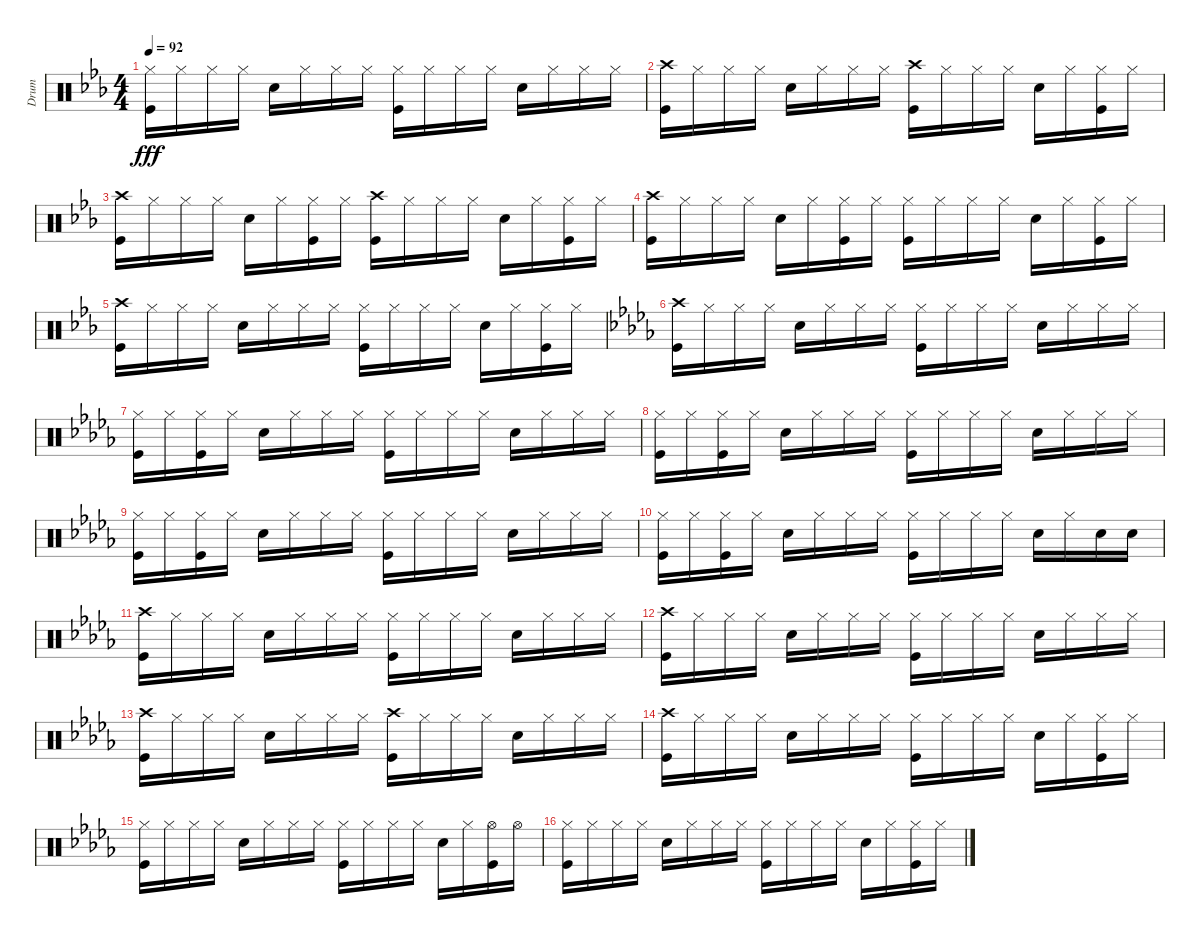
\track ("Drum" "Drum") {instrument percussion}
\staff {score}
\articulation defaults
\ts (4 4)
\tempo 92
\clef neutral
\ks eb
("Hi-Hat (closed)" "Kick (hit)").16{dy fff} "Hi-Hat (closed)".16 "Hi-Hat (closed)".16 "Hi-Hat (closed)".16 "Snare (hit) 2".16 "Hi-Hat (closed)".16 "Hi-Hat (closed)".16 "Hi-Hat (closed)".16 ("Hi-Hat (closed)" "Kick (hit)").16 "Hi-Hat (closed)".16 "Hi-Hat (closed)".16 "Hi-Hat (closed)".16 "Snare (hit) 2".16 "Hi-Hat (closed)".16 "Hi-Hat (closed)".16 "Hi-Hat (closed)".16 |
("Crash high (hit)" "Kick (hit)").16 "Hi-Hat (closed)".16 "Hi-Hat (closed)".16 "Hi-Hat (closed)".16 "Snare (hit) 2".16 "Hi-Hat (closed)".16 "Hi-Hat (closed)".16 "Hi-Hat (closed)".16 ("Crash high (hit)" "Kick (hit)").16 "Hi-Hat (closed)".16 "Hi-Hat (closed)".16 "Hi-Hat (closed)".16 "Snare (hit) 2".16 "Hi-Hat (closed)".16 ("Hi-Hat (closed)" "Kick (hit)").16 "Hi-Hat (closed)".16 |
("Crash high (hit)" "Kick (hit)").16 "Hi-Hat (closed)".16 "Hi-Hat (closed)".16 "Hi-Hat (closed)".16 "Snare (hit) 2".16 "Hi-Hat (closed)".16 ("Hi-Hat (closed)" "Kick (hit)").16 "Hi-Hat (closed)".16 ("Crash high (hit)" "Kick (hit)").16 "Hi-Hat (closed)".16 "Hi-Hat (closed)".16 "Hi-Hat (closed)".16 "Snare (hit) 2".16 "Hi-Hat (closed)".16 ("Hi-Hat (closed)" "Kick (hit)").16 "Hi-Hat (closed)".16 |
("Crash high (hit)" "Kick (hit)").16 "Hi-Hat (closed)".16 "Hi-Hat (closed)".16 "Hi-Hat (closed)".16 "Snare (hit) 2".16 "Hi-Hat (closed)".16 ("Hi-Hat (closed)" "Kick (hit)").16 "Hi-Hat (closed)".16 ("Hi-Hat (closed)" "Kick (hit)").16 "Hi-Hat (closed)".16 "Hi-Hat (closed)".16 "Hi-Hat (closed)".16 "Snare (hit) 2".16 "Hi-Hat (closed)".16 ("Hi-Hat (closed)" "Kick (hit)").16 "Hi-Hat (closed)".16 |
("Crash high (hit)" "Kick (hit)").16 "Hi-Hat (closed)".16 "Hi-Hat (closed)".16 "Hi-Hat (closed)".16 "Snare (hit) 2".16 "Hi-Hat (closed)".16 "Hi-Hat (closed)".16 "Hi-Hat (closed)".16 ("Hi-Hat (closed)" "Kick (hit)").16 "Hi-Hat (closed)".16 "Hi-Hat (closed)".16 "Hi-Hat (closed)".16 "Snare (hit) 2".16 "Hi-Hat (closed)".16 ("Hi-Hat (closed)" "Kick (hit)").16 "Hi-Hat (closed)".16 |
\ks db
("Crash high (hit)" "Kick (hit)").16 "Hi-Hat (closed)".16 "Hi-Hat (closed)".16 "Hi-Hat (closed)".16 "Snare (hit) 2".16 "Hi-Hat (closed)".16 "Hi-Hat (closed)".16 "Hi-Hat (closed)".16 ("Hi-Hat (closed)" "Kick (hit)").16 "Hi-Hat (closed)".16 "Hi-Hat (closed)".16 "Hi-Hat (closed)".16 "Snare (hit) 2".16 "Hi-Hat (closed)".16 "Hi-Hat (closed)".16 "Hi-Hat (closed)".16 |
("Hi-Hat (closed)" "Kick (hit)").16 "Hi-Hat (closed)".16 ("Hi-Hat (closed)" "Kick (hit)").16 "Hi-Hat (closed)".16 "Snare (hit) 2".16 "Hi-Hat (closed)".16 "Hi-Hat (closed)".16 "Hi-Hat (closed)".16 ("Hi-Hat (closed)" "Kick (hit)").16 "Hi-Hat (closed)".16 "Hi-Hat (closed)".16 "Hi-Hat (closed)".16 "Snare (hit) 2".16 "Hi-Hat (closed)".16 "Hi-Hat (closed)".16 "Hi-Hat (closed)".16 |
("Hi-Hat (closed)" "Kick (hit)").16 "Hi-Hat (closed)".16 ("Hi-Hat (closed)" "Kick (hit)").16 "Hi-Hat (closed)".16 "Snare (hit) 2".16 "Hi-Hat (closed)".16 "Hi-Hat (closed)".16 "Hi-Hat (closed)".16 ("Hi-Hat (closed)" "Kick (hit)").16 "Hi-Hat (closed)".16 "Hi-Hat (closed)".16 "Hi-Hat (closed)".16 "Snare (hit) 2".16 "Hi-Hat (closed)".16 "Hi-Hat (closed)".16 "Hi-Hat (closed)".16 |
("Hi-Hat (closed)" "Kick (hit)").16 "Hi-Hat (closed)".16 ("Hi-Hat (closed)" "Kick (hit)").16 "Hi-Hat (closed)".16 "Snare (hit) 2".16 "Hi-Hat (closed)".16 "Hi-Hat (closed)".16 "Hi-Hat (closed)".16 ("Hi-Hat (closed)" "Kick (hit)").16 "Hi-Hat (closed)".16 "Hi-Hat (closed)".16 "Hi-Hat (closed)".16 "Snare (hit) 2".16 "Hi-Hat (closed)".16 "Hi-Hat (closed)".16 "Hi-Hat (closed)".16 |
("Hi-Hat (closed)" "Kick (hit)").16 "Hi-Hat (closed)".16 ("Hi-Hat (closed)" "Kick (hit)").16 "Hi-Hat (closed)".16 "Snare (hit) 2".16 "Hi-Hat (closed)".16 "Hi-Hat (closed)".16 "Hi-Hat (closed)".16 ("Hi-Hat (closed)" "Kick (hit)").16 "Hi-Hat (closed)".16 "Hi-Hat (closed)".16 "Hi-Hat (closed)".16 "Snare (hit) 2".16 "Hi-Hat (closed)".16 "Snare (hit) 2".16 "Snare (hit) 2".16 |
("Crash high (hit)" "Kick (hit)").16 "Hi-Hat (closed)".16 "Hi-Hat (closed)".16 "Hi-Hat (closed)".16 "Snare (hit) 2".16 "Hi-Hat (closed)".16 "Hi-Hat (closed)".16 "Hi-Hat (closed)".16 ("Hi-Hat (closed)" "Kick (hit)").16 "Hi-Hat (closed)".16 "Hi-Hat (closed)".16 "Hi-Hat (closed)".16 "Snare (hit) 2".16 "Hi-Hat (closed)".16 "Hi-Hat (closed)".16 "Hi-Hat (closed)".16 |
("Crash high (hit)" "Kick (hit)").16 "Hi-Hat (closed)".16 "Hi-Hat (closed)".16 "Hi-Hat (closed)".16 "Snare (hit) 2".16 "Hi-Hat (closed)".16 "Hi-Hat (closed)".16 "Hi-Hat (closed)".16 ("Hi-Hat (closed)" "Kick (hit)").16 "Hi-Hat (closed)".16 "Hi-Hat (closed)".16 "Hi-Hat (closed)".16 "Snare (hit) 2".16 "Hi-Hat (closed)".16 "Hi-Hat (closed)".16 "Hi-Hat (closed)".16 |
("Crash high (hit)" "Kick (hit)").16 "Hi-Hat (closed)".16 "Hi-Hat (closed)".16 "Hi-Hat (closed)".16 "Snare (hit) 2".16 "Hi-Hat (closed)".16 "Hi-Hat (closed)".16 "Hi-Hat (closed)".16 ("Crash high (hit)" "Kick (hit)").16 "Hi-Hat (closed)".16 "Hi-Hat (closed)".16 "Hi-Hat (closed)".16 "Snare (hit) 2".16 "Hi-Hat (closed)".16 "Hi-Hat (closed)".16 "Hi-Hat (closed)".16 |
("Crash high (hit)" "Kick (hit)").16 "Hi-Hat (closed)".16 "Hi-Hat (closed)".16 "Hi-Hat (closed)".16 "Snare (hit) 2".16 "Hi-Hat (closed)".16 "Hi-Hat (closed)".16 "Hi-Hat (closed)".16 ("Hi-Hat (closed)" "Kick (hit)").16 "Hi-Hat (closed)".16 "Hi-Hat (closed)".16 "Hi-Hat (closed)".16 "Snare (hit) 2".16 "Hi-Hat (closed)".16 ("Hi-Hat (closed)" "Kick (hit)").16 "Hi-Hat (closed)".16 |
("Hi-Hat (closed)" "Kick (hit)").16 "Hi-Hat (closed)".16 "Hi-Hat (closed)".16 "Hi-Hat (closed)".16 "Snare (hit) 2".16 "Hi-Hat (closed)".16 "Hi-Hat (closed)".16 "Hi-Hat (closed)".16 ("Hi-Hat (closed)" "Kick (hit)").16 "Hi-Hat (closed)".16 "Hi-Hat (closed)".16 "Hi-Hat (closed)".16 "Snare (hit) 2".16 "Hi-Hat (closed)".16 ("Hi-Hat (open)" "Kick (hit)").16 "Hi-Hat (open)".16 |
("Hi-Hat (closed)" "Kick (hit)").16 "Hi-Hat (closed)".16 "Hi-Hat (closed)".16 "Hi-Hat (closed)".16 "Snare (hit) 2".16 "Hi-Hat (closed)".16 "Hi-Hat (closed)".16 "Hi-Hat (closed)".16 ("Hi-Hat (closed)" "Kick (hit)").16 "Hi-Hat (closed)".16 "Hi-Hat (closed)".16 "Hi-Hat (closed)".16 "Snare (hit) 2".16 "Hi-Hat (closed)".16 ("Hi-Hat (closed)" "Kick (hit)").16 "Hi-Hat (closed)".16
